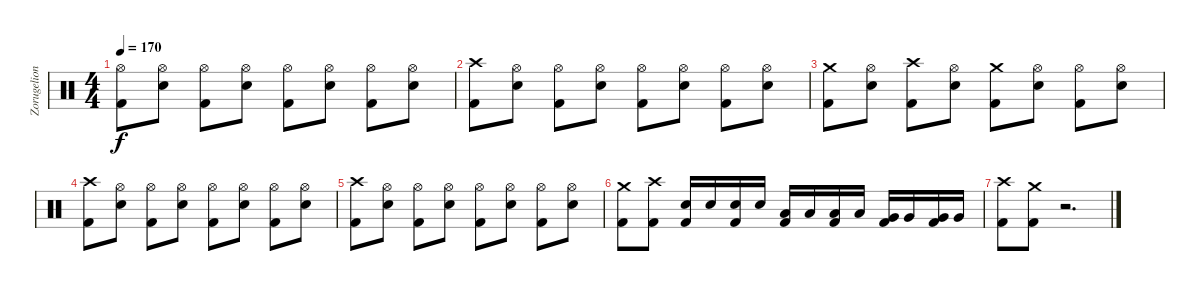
\track ("Zorugelion" "Zorugelion") {instrument percussion}
\staff {score}
\articulation defaults
\ts (4 4)
\tempo 170
\clef neutral
\ks c
("Hi-Hat (open)" "Kick (hit) 2").8{dy f} ("Hi-Hat (open)" "Electric Snare (hit)").8 ("Hi-Hat (open)" "Kick (hit) 2").8 ("Hi-Hat (open)" "Electric Snare (hit)").8 ("Hi-Hat (open)" "Kick (hit) 2").8 ("Hi-Hat (open)" "Electric Snare (hit)").8 ("Hi-Hat (open)" "Kick (hit) 2").8 ("Hi-Hat (open)" "Electric Snare (hit)").8 |
("Crash high (hit)" "Kick (hit) 2").8 ("Hi-Hat (open)" "Electric Snare (hit)").8 ("Hi-Hat (open)" "Kick (hit) 2").8 ("Hi-Hat (open)" "Electric Snare (hit)").8 ("Hi-Hat (open)" "Kick (hit) 2").8 ("Hi-Hat (open)" "Electric Snare (hit)").8 ("Hi-Hat (open)" "Kick (hit) 2").8 ("Hi-Hat (open)" "Electric Snare (hit)").8 |
("Crash medium (hit)" "Kick (hit) 2").8 ("Hi-Hat (open)" "Electric Snare (hit)").8 ("Crash high (hit)" "Kick (hit) 2").8 ("Hi-Hat (open)" "Electric Snare (hit)").8 ("Crash medium (hit)" "Kick (hit) 2").8 ("Hi-Hat (open)" "Electric Snare (hit)").8 ("Hi-Hat (open)" "Kick (hit) 2").8 ("Hi-Hat (open)" "Electric Snare (hit)").8 |
("Crash high (hit)" "Kick (hit) 2").8 ("Hi-Hat (open)" "Electric Snare (hit)").8 ("Hi-Hat (open)" "Kick (hit) 2").8 ("Hi-Hat (open)" "Electric Snare (hit)").8 ("Hi-Hat (open)" "Kick (hit) 2").8 ("Hi-Hat (open)" "Electric Snare (hit)").8 ("Hi-Hat (open)" "Kick (hit) 2").8 ("Hi-Hat (open)" "Electric Snare (hit)").8 |
("Crash high (hit)" "Kick (hit) 2").8 ("Hi-Hat (open)" "Electric Snare (hit)").8 ("Hi-Hat (open)" "Kick (hit) 2").8 ("Hi-Hat (open)" "Electric Snare (hit)").8 ("Hi-Hat (open)" "Kick (hit) 2").8 ("Hi-Hat (open)" "Electric Snare (hit)").8 ("Hi-Hat (open)" "Kick (hit) 2").8 ("Hi-Hat (open)" "Electric Snare (hit)").8 |
("Crash medium (hit)" "Kick (hit) 2").8 ("Crash high (hit)" "Kick (hit) 2").8 ("Electric Snare (hit)" "Kick (hit) 2").16 "Electric Snare (hit)".16 ("Electric Snare (hit)" "Kick (hit) 2").16 "Electric Snare (hit)".16 ("Low Tom (hit)" "Kick (hit) 2").16 "Low Tom (hit)".16 ("Low Tom (hit)" "Kick (hit) 2").16 "Low Tom (hit)".16 ("Very Low Tom (hit)" "Kick (hit) 2").16 "Very Low Tom (hit)".16 ("Very Low Tom (hit)" "Kick (hit) 2").16 "Very Low Tom (hit)".16 |
("Crash high (hit)" "Kick (hit) 2").8 ("Crash medium (hit)" "Kick (hit) 2").8 r.2{d}
